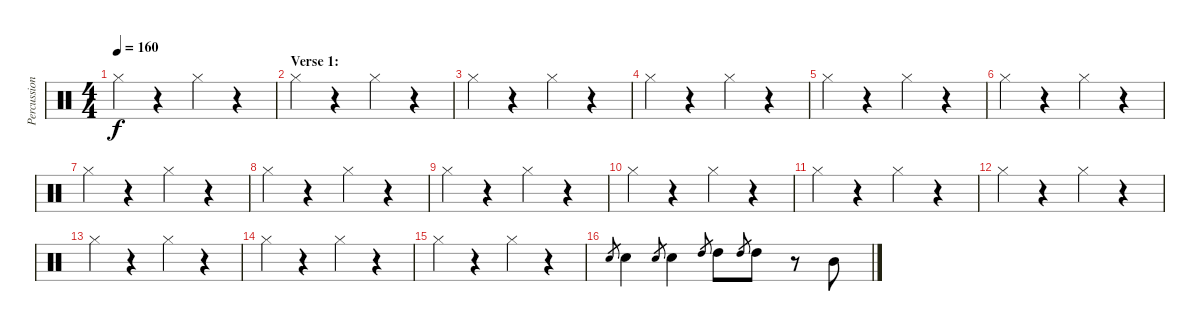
\track ("Percussion" "Percussion") {instrument percussion}
\staff {score}
\articulation defaults
\ts (4 4)
\tempo 160
\clef neutral
\ks c "Hi-Hat (closed)".4{dy f}
r.4 "Hi-Hat (closed)".4 r.4 |
\section ("" "Verse 1:")
"Hi-Hat (closed)".4 r.4 "Hi-Hat (closed)".4 r.4 |
"Hi-Hat (closed)".4 r.4 "Hi-Hat (closed)".4 r.4 |
"Hi-Hat (closed)".4 r.4 "Hi-Hat (closed)".4 r.4 |
"Hi-Hat (closed)".4 r.4 "Hi-Hat (closed)".4 r.4 |
"Hi-Hat (closed)".4 r.4 "Hi-Hat (closed)".4 r.4 |
"Hi-Hat (closed)".4 r.4 "Hi-Hat (closed)".4 r.4 |
"Hi-Hat (closed)".4 r.4 "Hi-Hat (closed)".4 r.4 |
"Hi-Hat (closed)".4 r.4 "Hi-Hat (closed)".4 r.4 |
"Hi-Hat (closed)".4 r.4 "Hi-Hat (closed)".4 r.4 |
"Hi-Hat (closed)".4 r.4 "Hi-Hat (closed)".4 r.4 |
"Hi-Hat (closed)".4 r.4 "Hi-Hat (closed)".4 r.4 |
"Hi-Hat (closed)".4 r.4 "Hi-Hat (closed)".4 r.4 |
"Hi-Hat (closed)".4 r.4 "Hi-Hat (closed)".4 r.4 |
"Hi-Hat (closed)".4 r.4 "Hi-Hat (closed)".4 r.4 |
"Electric Snare (hit)".8{gr} "Electric Snare (hit)".4 "Electric Snare (hit)".8{gr} "Electric Snare (hit)".4 "High Tom (hit)".8{gr} "High Tom (hit)".8 "High Tom (hit)".8{gr} "High Tom (hit)".8 r.8 "Mid Tom (hit)".8
